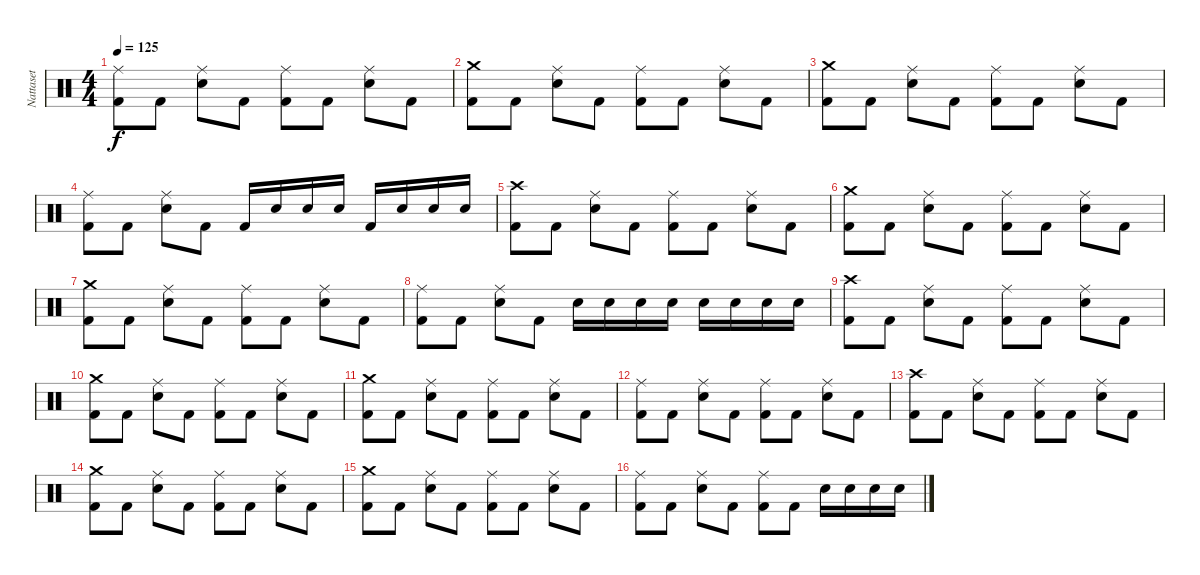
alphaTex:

\track ("Nattaset" "Nattaset") {instrument percussion}
\staff {score}
\articulation defaults
\ts (4 4)
\tempo 125
\clef neutral
\ks c
("Kick (hit) 2" "Ride (middle)").8{dy f} "Kick (hit) 2".8 ("Snare (hit) 2" "Ride (middle)").8 "Kick (hit) 2".8 ("Kick (hit) 2" "Ride (middle)").8 "Kick (hit) 2".8 ("Snare (hit) 2" "Ride (middle)").8 "Kick (hit) 2".8 |
("Kick (hit) 2" "Crash medium (hit)").8 "Kick (hit) 2".8 ("Snare (hit) 2" "Ride (middle)").8 "Kick (hit) 2".8 ("Kick (hit) 2" "Ride (middle)").8 "Kick (hit) 2".8 ("Snare (hit) 2" "Ride (middle)").8 "Kick (hit) 2".8 |
("Kick (hit) 2" "Crash medium (hit)").8 "Kick (hit) 2".8 ("Snare (hit) 2" "Ride (middle)").8 "Kick (hit) 2".8 ("Kick (hit) 2" "Ride (middle)").8 "Kick (hit) 2".8 ("Snare (hit) 2" "Ride (middle)").8 "Kick (hit) 2".8 |
("Kick (hit) 2" "Ride (middle)").8 "Kick (hit) 2".8 ("Snare (hit) 2" "Ride (middle)").8 "Kick (hit) 2".8 "Kick (hit) 2".16 "Snare (hit) 2".16 "Snare (hit) 2".16 "Snare (hit) 2".16 "Kick (hit) 2".16 "Snare (hit) 2".16 "Snare (hit) 2".16 "Snare (hit) 2".16 |
("Kick (hit) 2" "Crash high (hit)").8 "Kick (hit) 2".8 ("Snare (hit) 2" "Ride (middle)").8 "Kick (hit) 2".8 ("Kick (hit) 2" "Ride (middle)").8 "Kick (hit) 2".8 ("Snare (hit) 2" "Ride (middle)").8 "Kick (hit) 2".8 |
("Kick (hit) 2" "Crash medium (hit)").8 "Kick (hit) 2".8 ("Snare (hit) 2" "Ride (middle)").8 "Kick (hit) 2".8 ("Kick (hit) 2" "Ride (middle)").8 "Kick (hit) 2".8 ("Snare (hit) 2" "Ride (middle)").8 "Kick (hit) 2".8 |
("Kick (hit) 2" "Crash medium (hit)").8 "Kick (hit) 2".8 ("Snare (hit) 2" "Ride (middle)").8 "Kick (hit) 2".8 ("Kick (hit) 2" "Ride (middle)").8 "Kick (hit) 2".8 ("Snare (hit) 2" "Ride (middle)").8 "Kick (hit) 2".8 |
("Kick (hit) 2" "Ride (middle)").8 "Kick (hit) 2".8 ("Snare (hit) 2" "Ride (middle)").8 "Kick (hit) 2".8 "Snare (hit) 2".16 "Snare (hit) 2".16 "Snare (hit) 2".16 "Snare (hit) 2".16 "Snare (hit) 2".16 "Snare (hit) 2".16 "Snare (hit) 2".16 "Snare (hit) 2".16 |
("Kick (hit) 2" "Crash high (hit)").8 "Kick (hit) 2".8 ("Snare (hit) 2" "Ride (middle)").8 "Kick (hit) 2".8 ("Kick (hit) 2" "Ride (middle)").8 "Kick (hit) 2".8 ("Snare (hit) 2" "Ride (middle)").8 "Kick (hit) 2".8 |
("Kick (hit) 2" "Crash medium (hit)").8 "Kick (hit) 2".8 ("Snare (hit) 2" "Ride (middle)").8 "Kick (hit) 2".8 ("Kick (hit) 2" "Ride (middle)").8 "Kick (hit) 2".8 ("Snare (hit) 2" "Ride (middle)").8 "Kick (hit) 2".8 |
("Kick (hit) 2" "Crash medium (hit)").8 "Kick (hit) 2".8 ("Snare (hit) 2" "Ride (middle)").8 "Kick (hit) 2".8 ("Kick (hit) 2" "Ride (middle)").8 "Kick (hit) 2".8 ("Snare (hit) 2" "Ride (middle)").8 "Kick (hit) 2".8 |
("Kick (hit) 2" "Ride (middle)").8 "Kick (hit) 2".8 ("Snare (hit) 2" "Ride (middle)").8 "Kick (hit) 2".8 ("Kick (hit) 2" "Ride (middle)").8 "Kick (hit) 2".8 ("Snare (hit) 2" "Ride (middle)").8 "Kick (hit) 2".8 |
("Kick (hit) 2" "Crash high (hit)").8 "Kick (hit) 2".8 ("Snare (hit) 2" "Ride (middle)").8 "Kick (hit) 2".8 ("Kick (hit) 2" "Ride (middle)").8 "Kick (hit) 2".8 ("Snare (hit) 2" "Ride (middle)").8 "Kick (hit) 2".8 |
("Kick (hit) 2" "Crash medium (hit)").8 "Kick (hit) 2".8 ("Snare (hit) 2" "Ride (middle)").8 "Kick (hit) 2".8 ("Kick (hit) 2" "Ride (middle)").8 "Kick (hit) 2".8 ("Snare (hit) 2" "Ride (middle)").8 "Kick (hit) 2".8 |
("Kick (hit) 2" "Crash medium (hit)").8 "Kick (hit) 2".8 ("Snare (hit) 2" "Ride (middle)").8 "Kick (hit) 2".8 ("Kick (hit) 2" "Ride (middle)").8 "Kick (hit) 2".8 ("Snare (hit) 2" "Ride (middle)").8 "Kick (hit) 2".8 |
("Kick (hit) 2" "Ride (middle)").8 "Kick (hit) 2".8 ("Snare (hit) 2" "Ride (middle)").8 "Kick (hit) 2".8 ("Kick (hit) 2" "Ride (middle)").8 "Kick (hit) 2".8 "Snare (hit) 2".16 "Snare (hit) 2".16 "Snare (hit) 2".16 "Snare (hit) 2".16
